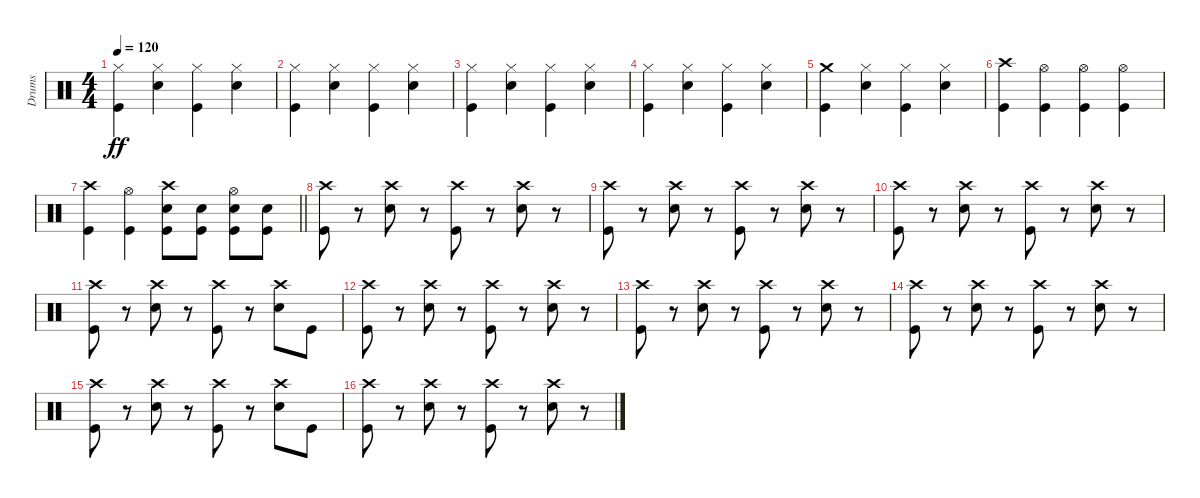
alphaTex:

\track ("Drums" "Drums") {instrument percussion}
\staff {score}
\articulation defaults
\ts (4 4)
\tempo 120
\clef neutral
\ks c
("Hi-Hat (closed)" "Kick (hit)").4{dy ff} ("Hi-Hat (closed)" "Snare (hit) 2").4 ("Hi-Hat (closed)" "Kick (hit)").4 ("Hi-Hat (closed)" "Snare (hit) 2").4 |
("Hi-Hat (closed)" "Kick (hit)").4 ("Hi-Hat (closed)" "Snare (hit) 2").4 ("Hi-Hat (closed)" "Kick (hit)").4 ("Hi-Hat (closed)" "Snare (hit) 2").4 |
("Hi-Hat (closed)" "Kick (hit)").4 ("Hi-Hat (closed)" "Snare (hit) 2").4 ("Hi-Hat (closed)" "Kick (hit)").4 ("Hi-Hat (closed)" "Snare (hit) 2").4 |
("Hi-Hat (closed)" "Kick (hit)").4 ("Hi-Hat (closed)" "Snare (hit) 2").4 ("Hi-Hat (closed)" "Kick (hit)").4 ("Hi-Hat (closed)" "Snare (hit) 2").4 |
("Crash medium (hit)" "Kick (hit)").4 ("Hi-Hat (closed)" "Snare (hit) 2").4 ("Hi-Hat (closed)" "Kick (hit)").4 ("Hi-Hat (closed)" "Snare (hit) 2").4 |
("Crash high (hit)" "Kick (hit)").4 ("Hi-Hat (open)" "Kick (hit)").4 ("Hi-Hat (open)" "Kick (hit)").4 ("Hi-Hat (open)" "Kick (hit)").4 |
\barLineRight lightlight
("Crash high (hit)" "Kick (hit)").4 ("Hi-Hat (open)" "Kick (hit)").4 ("Crash high (hit)" "Snare (hit) 2" "Kick (hit)").8 ("Snare (hit) 2" "Kick (hit)").8 ("Hi-Hat (open)" "Snare (hit) 2" "Kick (hit)").8 ("Snare (hit) 2" "Kick (hit)").8 |
("Crash high (hit)" "Kick (hit)").8 r.8 ("Crash high (hit)" "Snare (hit) 2").8 r.8 ("Crash high (hit)" "Kick (hit)").8 r.8 ("Crash high (hit)" "Snare (hit) 2").8 r.8 |
("Crash high (hit)" "Kick (hit)").8 r.8 ("Crash high (hit)" "Snare (hit) 2").8 r.8 ("Crash high (hit)" "Kick (hit)").8 r.8 ("Crash high (hit)" "Snare (hit) 2").8 r.8 |
("Crash high (hit)" "Kick (hit)").8 r.8 ("Crash high (hit)" "Snare (hit) 2").8 r.8 ("Crash high (hit)" "Kick (hit)").8 r.8 ("Crash high (hit)" "Snare (hit) 2").8 r.8 |
("Crash high (hit)" "Kick (hit)").8 r.8 ("Crash high (hit)" "Snare (hit) 2").8 r.8 ("Crash high (hit)" "Kick (hit)").8 r.8 ("Crash high (hit)" "Snare (hit) 2").8 "Kick (hit)".8 |
("Crash high (hit)" "Kick (hit)").8 r.8 ("Crash high (hit)" "Snare (hit) 2").8 r.8 ("Crash high (hit)" "Kick (hit)").8 r.8 ("Crash high (hit)" "Snare (hit) 2").8 r.8 |
("Crash high (hit)" "Kick (hit)").8 r.8 ("Crash high (hit)" "Snare (hit) 2").8 r.8 ("Crash high (hit)" "Kick (hit)").8 r.8 ("Crash high (hit)" "Snare (hit) 2").8 r.8 |
("Crash high (hit)" "Kick (hit)").8 r.8 ("Crash high (hit)" "Snare (hit) 2").8 r.8 ("Crash high (hit)" "Kick (hit)").8 r.8 ("Crash high (hit)" "Snare (hit) 2").8 r.8 |
("Crash high (hit)" "Kick (hit)").8 r.8 ("Crash high (hit)" "Snare (hit) 2").8 r.8 ("Crash high (hit)" "Kick (hit)").8 r.8 ("Crash high (hit)" "Snare (hit) 2").8 "Kick (hit)".8 |
("Crash high (hit)" "Kick (hit)").8 r.8 ("Crash high (hit)" "Snare (hit) 2").8 r.8 ("Crash high (hit)" "Kick (hit)").8 r.8 ("Crash high (hit)" "Snare (hit) 2").8 r.8
